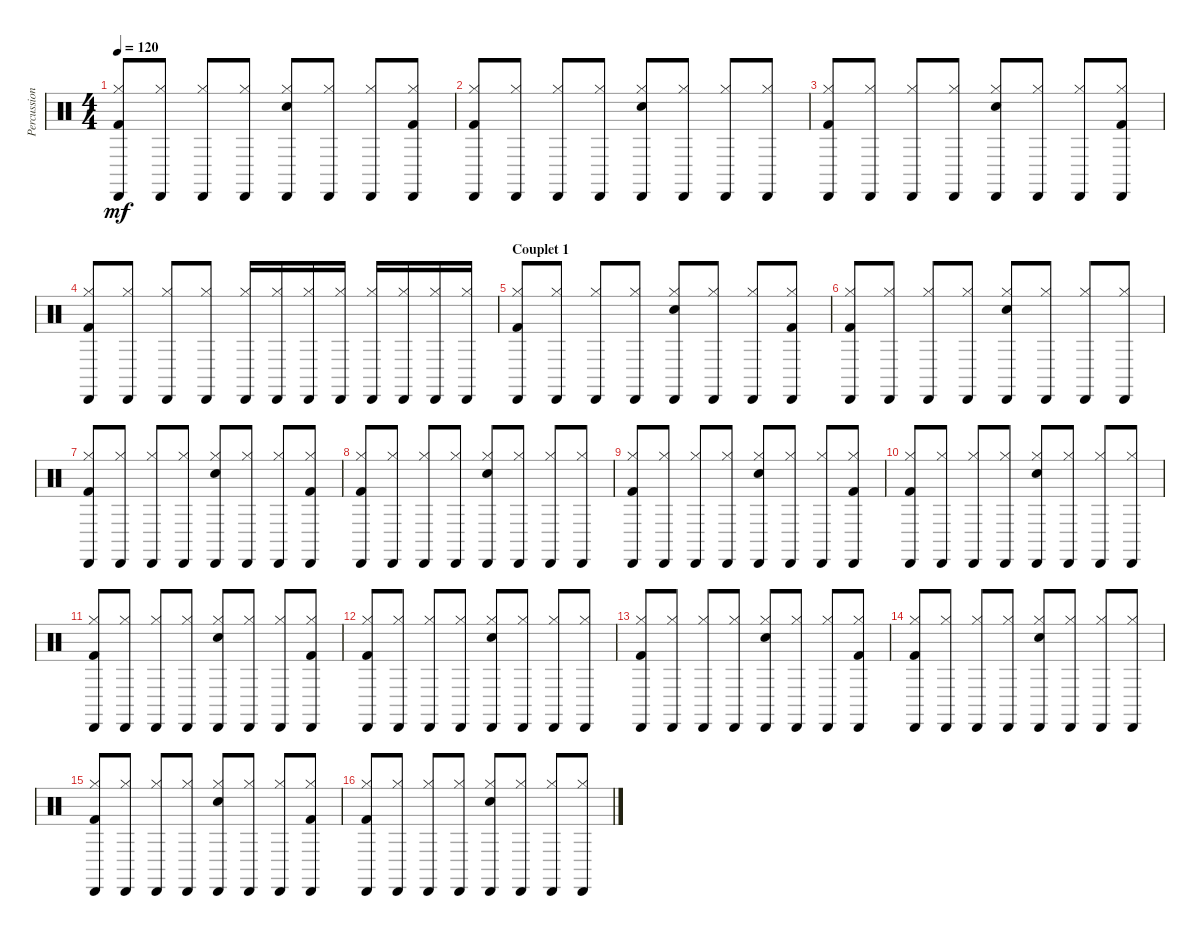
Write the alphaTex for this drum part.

\track ("Percussions" "Percussion") {instrument percussion}
\staff {score}
\articulation defaults
\ts (4 4)
\tempo 120
\clef neutral
\ks c
("Kick (hit) 2" "Cabasa (hit)" "Hi-Hat (closed)").8{dy mf} ("Cabasa (hit)" "Hi-Hat (closed)").8 ("Cabasa (hit)" "Hi-Hat (closed)").8 ("Cabasa (hit)" "Hi-Hat (closed)").8 ("Electric Snare (hit)" "Cabasa (hit)" "Hi-Hat (closed)").8 ("Cabasa (hit)" "Hi-Hat (closed)").8 ("Cabasa (hit)" "Hi-Hat (closed)").8 ("Kick (hit) 2" "Cabasa (hit)" "Hi-Hat (closed)").8 |
("Kick (hit) 2" "Cabasa (hit)" "Hi-Hat (closed)").8 ("Cabasa (hit)" "Hi-Hat (closed)").8 ("Cabasa (hit)" "Hi-Hat (closed)").8 ("Cabasa (hit)" "Hi-Hat (closed)").8 ("Electric Snare (hit)" "Cabasa (hit)" "Hi-Hat (closed)").8 ("Cabasa (hit)" "Hi-Hat (closed)").8 ("Cabasa (hit)" "Hi-Hat (closed)").8 ("Cabasa (hit)" "Hi-Hat (closed)").8 |
("Kick (hit) 2" "Cabasa (hit)" "Hi-Hat (closed)").8 ("Cabasa (hit)" "Hi-Hat (closed)").8 ("Cabasa (hit)" "Hi-Hat (closed)").8 ("Cabasa (hit)" "Hi-Hat (closed)").8 ("Electric Snare (hit)" "Cabasa (hit)" "Hi-Hat (closed)").8 ("Cabasa (hit)" "Hi-Hat (closed)").8 ("Cabasa (hit)" "Hi-Hat (closed)").8 ("Kick (hit) 2" "Cabasa (hit)" "Hi-Hat (closed)").8 |
("Kick (hit) 2" "Cabasa (hit)" "Hi-Hat (closed)").8 ("Cabasa (hit)" "Hi-Hat (closed)").8 ("Cabasa (hit)" "Hi-Hat (closed)").8 ("Cabasa (hit)" "Hi-Hat (closed)").8 ("Cabasa (hit)" "Hi-Hat (closed)").16 ("Cabasa (hit)" "Hi-Hat (closed)").16 ("Cabasa (hit)" "Hi-Hat (closed)").16 ("Cabasa (hit)" "Hi-Hat (closed)").16 ("Cabasa (hit)" "Hi-Hat (closed)").16 ("Cabasa (hit)" "Hi-Hat (closed)").16 ("Cabasa (hit)" "Hi-Hat (closed)").16 ("Cabasa (hit)" "Hi-Hat (closed)").16 |
\section ("" "Couplet 1")
("Kick (hit) 2" "Cabasa (hit)" "Hi-Hat (closed)").8 ("Cabasa (hit)" "Hi-Hat (closed)").8 ("Cabasa (hit)" "Hi-Hat (closed)").8 ("Cabasa (hit)" "Hi-Hat (closed)").8 ("Electric Snare (hit)" "Cabasa (hit)" "Hi-Hat (closed)").8 ("Cabasa (hit)" "Hi-Hat (closed)").8 ("Cabasa (hit)" "Hi-Hat (closed)").8 ("Kick (hit) 2" "Cabasa (hit)" "Hi-Hat (closed)").8 |
("Kick (hit) 2" "Cabasa (hit)" "Hi-Hat (closed)").8 ("Cabasa (hit)" "Hi-Hat (closed)").8 ("Cabasa (hit)" "Hi-Hat (closed)").8 ("Cabasa (hit)" "Hi-Hat (closed)").8 ("Electric Snare (hit)" "Cabasa (hit)" "Hi-Hat (closed)").8 ("Cabasa (hit)" "Hi-Hat (closed)").8 ("Cabasa (hit)" "Hi-Hat (closed)").8 ("Cabasa (hit)" "Hi-Hat (closed)").8 |
("Kick (hit) 2" "Cabasa (hit)" "Hi-Hat (closed)").8 ("Cabasa (hit)" "Hi-Hat (closed)").8 ("Cabasa (hit)" "Hi-Hat (closed)").8 ("Cabasa (hit)" "Hi-Hat (closed)").8 ("Electric Snare (hit)" "Cabasa (hit)" "Hi-Hat (closed)").8 ("Cabasa (hit)" "Hi-Hat (closed)").8 ("Cabasa (hit)" "Hi-Hat (closed)").8 ("Kick (hit) 2" "Cabasa (hit)" "Hi-Hat (closed)").8 |
("Kick (hit) 2" "Cabasa (hit)" "Hi-Hat (closed)").8 ("Cabasa (hit)" "Hi-Hat (closed)").8 ("Cabasa (hit)" "Hi-Hat (closed)").8 ("Cabasa (hit)" "Hi-Hat (closed)").8 ("Electric Snare (hit)" "Cabasa (hit)" "Hi-Hat (closed)").8 ("Cabasa (hit)" "Hi-Hat (closed)").8 ("Cabasa (hit)" "Hi-Hat (closed)").8 ("Cabasa (hit)" "Hi-Hat (closed)").8 |
("Kick (hit) 2" "Cabasa (hit)" "Hi-Hat (closed)").8 ("Cabasa (hit)" "Hi-Hat (closed)").8 ("Cabasa (hit)" "Hi-Hat (closed)").8 ("Cabasa (hit)" "Hi-Hat (closed)").8 ("Electric Snare (hit)" "Cabasa (hit)" "Hi-Hat (closed)").8 ("Cabasa (hit)" "Hi-Hat (closed)").8 ("Cabasa (hit)" "Hi-Hat (closed)").8 ("Kick (hit) 2" "Cabasa (hit)" "Hi-Hat (closed)").8 |
("Kick (hit) 2" "Cabasa (hit)" "Hi-Hat (closed)").8 ("Cabasa (hit)" "Hi-Hat (closed)").8 ("Cabasa (hit)" "Hi-Hat (closed)").8 ("Cabasa (hit)" "Hi-Hat (closed)").8 ("Electric Snare (hit)" "Cabasa (hit)" "Hi-Hat (closed)").8 ("Cabasa (hit)" "Hi-Hat (closed)").8 ("Cabasa (hit)" "Hi-Hat (closed)").8 ("Cabasa (hit)" "Hi-Hat (closed)").8 |
("Kick (hit) 2" "Cabasa (hit)" "Hi-Hat (closed)").8 ("Cabasa (hit)" "Hi-Hat (closed)").8 ("Cabasa (hit)" "Hi-Hat (closed)").8 ("Cabasa (hit)" "Hi-Hat (closed)").8 ("Electric Snare (hit)" "Cabasa (hit)" "Hi-Hat (closed)").8 ("Cabasa (hit)" "Hi-Hat (closed)").8 ("Cabasa (hit)" "Hi-Hat (closed)").8 ("Kick (hit) 2" "Cabasa (hit)" "Hi-Hat (closed)").8 |
("Kick (hit) 2" "Cabasa (hit)" "Hi-Hat (closed)").8 ("Cabasa (hit)" "Hi-Hat (closed)").8 ("Cabasa (hit)" "Hi-Hat (closed)").8 ("Cabasa (hit)" "Hi-Hat (closed)").8 ("Electric Snare (hit)" "Cabasa (hit)" "Hi-Hat (closed)").8 ("Cabasa (hit)" "Hi-Hat (closed)").8 ("Cabasa (hit)" "Hi-Hat (closed)").8 ("Cabasa (hit)" "Hi-Hat (closed)").8 |
("Kick (hit) 2" "Cabasa (hit)" "Hi-Hat (closed)").8 ("Cabasa (hit)" "Hi-Hat (closed)").8 ("Cabasa (hit)" "Hi-Hat (closed)").8 ("Cabasa (hit)" "Hi-Hat (closed)").8 ("Electric Snare (hit)" "Cabasa (hit)" "Hi-Hat (closed)").8 ("Cabasa (hit)" "Hi-Hat (closed)").8 ("Cabasa (hit)" "Hi-Hat (closed)").8 ("Kick (hit) 2" "Cabasa (hit)" "Hi-Hat (closed)").8 |
("Kick (hit) 2" "Cabasa (hit)" "Hi-Hat (closed)").8 ("Cabasa (hit)" "Hi-Hat (closed)").8 ("Cabasa (hit)" "Hi-Hat (closed)").8 ("Cabasa (hit)" "Hi-Hat (closed)").8 ("Electric Snare (hit)" "Cabasa (hit)" "Hi-Hat (closed)").8 ("Cabasa (hit)" "Hi-Hat (closed)").8 ("Cabasa (hit)" "Hi-Hat (closed)").8 ("Cabasa (hit)" "Hi-Hat (closed)").8 |
("Kick (hit) 2" "Cabasa (hit)" "Hi-Hat (closed)").8 ("Cabasa (hit)" "Hi-Hat (closed)").8 ("Cabasa (hit)" "Hi-Hat (closed)").8 ("Cabasa (hit)" "Hi-Hat (closed)").8 ("Electric Snare (hit)" "Cabasa (hit)" "Hi-Hat (closed)").8 ("Cabasa (hit)" "Hi-Hat (closed)").8 ("Cabasa (hit)" "Hi-Hat (closed)").8 ("Kick (hit) 2" "Cabasa (hit)" "Hi-Hat (closed)").8 |
("Kick (hit) 2" "Cabasa (hit)" "Hi-Hat (closed)").8 ("Cabasa (hit)" "Hi-Hat (closed)").8 ("Cabasa (hit)" "Hi-Hat (closed)").8 ("Cabasa (hit)" "Hi-Hat (closed)").8 ("Electric Snare (hit)" "Cabasa (hit)" "Hi-Hat (closed)").8 ("Cabasa (hit)" "Hi-Hat (closed)").8 ("Cabasa (hit)" "Hi-Hat (closed)").8 ("Cabasa (hit)" "Hi-Hat (closed)").8
